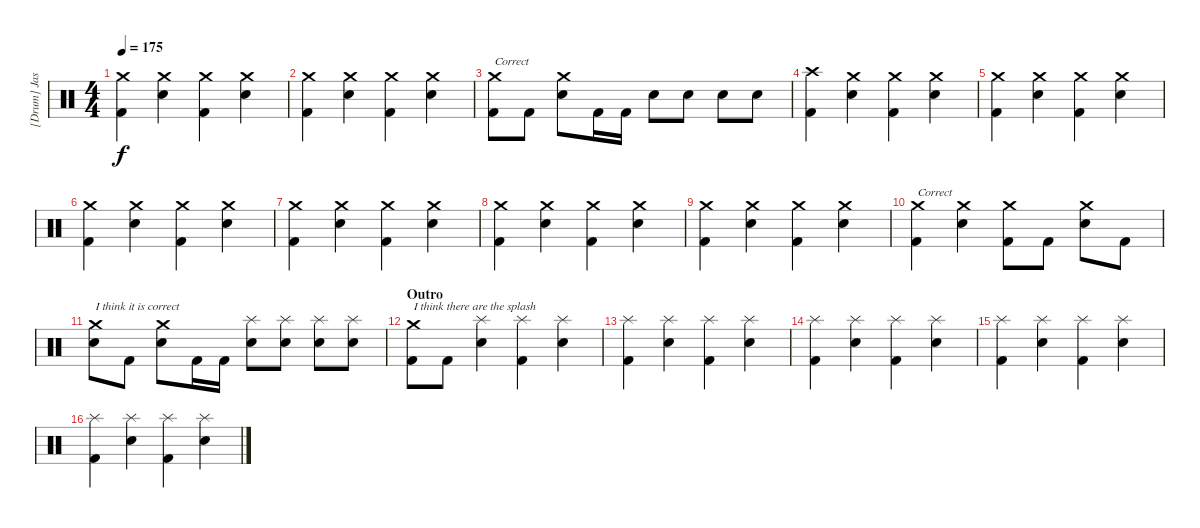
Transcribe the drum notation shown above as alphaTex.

\track ("[Drum] Jason \"Shakes\" West" "[Drum] Jas") {instrument percussion}
\staff {score}
\articulation defaults
\ts (4 4)
\tempo 175
\clef neutral
\ks c
("Crash medium (hit)" "Kick (hit) 2").4{dy f} ("Crash medium (hit)" "Electric Snare (hit)").4 ("Crash medium (hit)" "Kick (hit) 2").4 ("Crash medium (hit)" "Electric Snare (hit)").4 |
("Crash medium (hit)" "Kick (hit) 2").4 ("Crash medium (hit)" "Electric Snare (hit)").4 ("Crash medium (hit)" "Kick (hit) 2").4 ("Crash medium (hit)" "Electric Snare (hit)").4 |
("Kick (hit) 2" "Crash medium (hit)").8{txt "Correct"} "Kick (hit) 2".8 ("Crash medium (hit)" "Electric Snare (hit)").8 "Kick (hit) 2".16 "Kick (hit) 2".16 "Electric Snare (hit)".8 "Electric Snare (hit)".8 "Electric Snare (hit)".8 "Electric Snare (hit)".8 |
("Crash high (hit)" "Kick (hit) 2").4 ("Crash medium (hit)" "Electric Snare (hit)").4 ("Crash medium (hit)" "Kick (hit) 2").4 ("Crash medium (hit)" "Electric Snare (hit)").4 |
("Crash medium (hit)" "Kick (hit) 2").4 ("Crash medium (hit)" "Electric Snare (hit)").4 ("Crash medium (hit)" "Kick (hit) 2").4 ("Crash medium (hit)" "Electric Snare (hit)").4 |
("Crash medium (hit)" "Kick (hit) 2").4 ("Crash medium (hit)" "Electric Snare (hit)").4 ("Crash medium (hit)" "Kick (hit) 2").4 ("Crash medium (hit)" "Electric Snare (hit)").4 |
("Crash medium (hit)" "Kick (hit) 2").4 ("Crash medium (hit)" "Electric Snare (hit)").4 ("Crash medium (hit)" "Kick (hit) 2").4 ("Crash medium (hit)" "Electric Snare (hit)").4 |
("Crash medium (hit)" "Kick (hit) 2").4 ("Crash medium (hit)" "Electric Snare (hit)").4 ("Crash medium (hit)" "Kick (hit) 2").4 ("Crash medium (hit)" "Electric Snare (hit)").4 |
("Crash medium (hit)" "Kick (hit) 2").4 ("Crash medium (hit)" "Electric Snare (hit)").4 ("Crash medium (hit)" "Kick (hit) 2").4 ("Crash medium (hit)" "Electric Snare (hit)").4 |
("Crash medium (hit)" "Kick (hit) 2").4{txt "Correct"} ("Electric Snare (hit)" "Crash medium (hit)").4 ("Kick (hit) 2" "Crash medium (hit)").8 "Kick (hit) 2".8 ("Electric Snare (hit)" "Crash medium (hit)").8 "Kick (hit) 2".8 |
("Electric Snare (hit)" "Crash medium (hit)").8{txt "I think it is correct"} "Kick (hit) 2".8 ("Electric Snare (hit)" "Crash medium (hit)").8 "Kick (hit) 2".16 "Kick (hit) 2".16 ("Electric Snare (hit)" "Splash (hit)").8 ("Electric Snare (hit)" "Splash (hit)").8 ("Electric Snare (hit)" "Splash (hit)").8 ("Electric Snare (hit)" "Splash (hit)").8 |
\section ("" "Outro")
("Crash medium (hit)" "Kick (hit) 2").8{txt "I think there are the splash"} "Kick (hit) 2".8 ("Splash (hit)" "Electric Snare (hit)").4 ("Splash (hit)" "Kick (hit) 2").4 ("Splash (hit)" "Electric Snare (hit)").4 |
("Splash (hit)" "Kick (hit) 2").4 ("Splash (hit)" "Electric Snare (hit)").4 ("Splash (hit)" "Kick (hit) 2").4 ("Splash (hit)" "Electric Snare (hit)").4 |
("Splash (hit)" "Kick (hit) 2").4 ("Splash (hit)" "Electric Snare (hit)").4 ("Splash (hit)" "Kick (hit) 2").4 ("Splash (hit)" "Electric Snare (hit)").4 |
("Splash (hit)" "Kick (hit) 2").4 ("Splash (hit)" "Electric Snare (hit)").4 ("Splash (hit)" "Kick (hit) 2").4 ("Splash (hit)" "Electric Snare (hit)").4 |
("Splash (hit)" "Kick (hit) 2").4 ("Splash (hit)" "Electric Snare (hit)").4 ("Splash (hit)" "Kick (hit) 2").4 ("Splash (hit)" "Electric Snare (hit)").4
